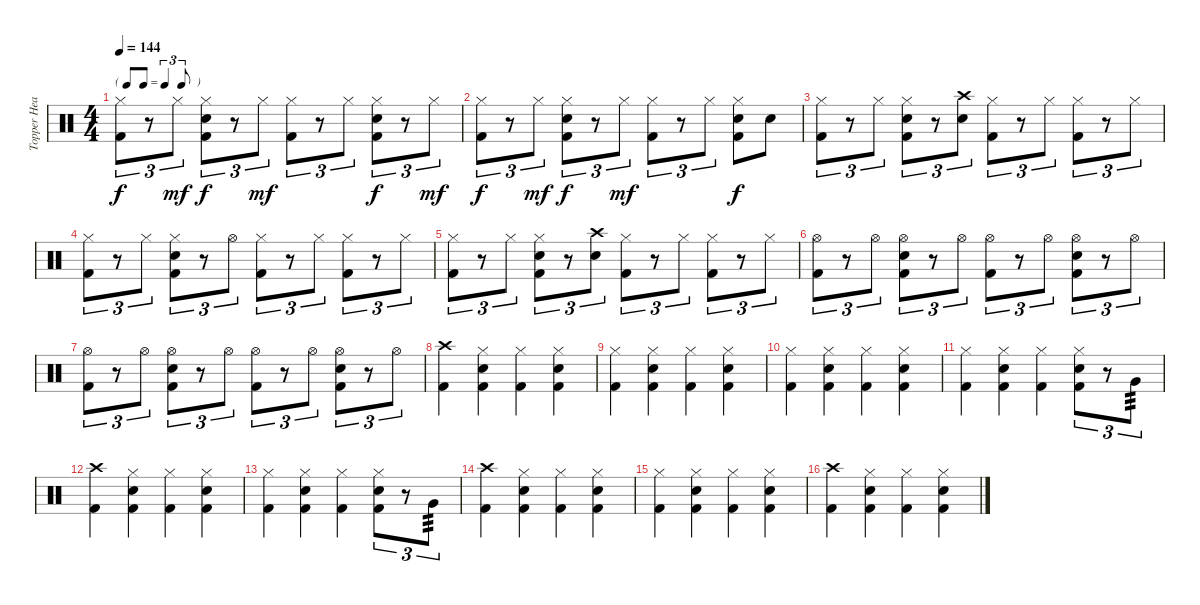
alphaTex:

\track ("Topper Headon" "Topper Hea") {instrument percussion}
\staff {score}
\articulation defaults
\ts (4 4)
\tf triplet8th
\tempo 144
\clef neutral
\ks c
("Hi-Hat (closed)" "Kick (hit) 2").8{tu (3 2) dy f} r.8{tu (3 2)} "Hi-Hat (closed)".8{tu (3 2) dy mf} ("Hi-Hat (closed)" "Snare (hit) 2" "Kick (hit) 2").8{tu (3 2) dy f} r.8{tu (3 2)} "Hi-Hat (closed)".8{tu (3 2) dy mf} ("Hi-Hat (closed)" "Kick (hit) 2").8{tu (3 2)} r.8{tu (3 2)} "Hi-Hat (closed)".8{tu (3 2)} ("Hi-Hat (closed)" "Snare (hit) 2" "Kick (hit) 2").8{tu (3 2) dy f} r.8{tu (3 2)} "Hi-Hat (closed)".8{tu (3 2) dy mf} |
("Hi-Hat (closed)" "Kick (hit) 2").8{tu (3 2) dy f} r.8{tu (3 2)} "Hi-Hat (closed)".8{tu (3 2) dy mf} ("Hi-Hat (closed)" "Snare (hit) 2" "Kick (hit) 2").8{tu (3 2) dy f} r.8{tu (3 2)} "Hi-Hat (closed)".8{tu (3 2) dy mf} ("Hi-Hat (closed)" "Kick (hit) 2").8{tu (3 2)} r.8{tu (3 2)} "Hi-Hat (closed)".8{tu (3 2)} ("Hi-Hat (closed)" "Snare (hit) 2" "Kick (hit) 2").8{dy f} "Snare (hit) 2".8 |
("Hi-Hat (closed)" "Kick (hit) 2").8{tu (3 2)} r.8{tu (3 2)} "Hi-Hat (closed)".8{tu (3 2)} ("Hi-Hat (closed)" "Snare (hit) 2" "Kick (hit) 2").8{tu (3 2)} r.8{tu (3 2)} ("Crash high (hit)" "Snare (hit) 2").8{tu (3 2)} ("Hi-Hat (closed)" "Kick (hit) 2").8{tu (3 2)} r.8{tu (3 2)} "Hi-Hat (closed)".8{tu (3 2)} ("Hi-Hat (closed)" "Kick (hit) 2").8{tu (3 2)} r.8{tu (3 2)} "Hi-Hat (closed)".8{tu (3 2)} |
("Hi-Hat (closed)" "Kick (hit) 2").8{tu (3 2)} r.8{tu (3 2)} "Hi-Hat (closed)".8{tu (3 2)} ("Hi-Hat (closed)" "Snare (hit) 2" "Kick (hit) 2").8{tu (3 2)} r.8{tu (3 2)} "Hi-Hat (open)".8{tu (3 2)} ("Hi-Hat (closed)" "Kick (hit) 2").8{tu (3 2)} r.8{tu (3 2)} "Hi-Hat (closed)".8{tu (3 2)} ("Hi-Hat (closed)" "Kick (hit) 2").8{tu (3 2)} r.8{tu (3 2)} "Hi-Hat (closed)".8{tu (3 2)} |
("Hi-Hat (closed)" "Kick (hit) 2").8{tu (3 2)} r.8{tu (3 2)} "Hi-Hat (closed)".8{tu (3 2)} ("Hi-Hat (closed)" "Snare (hit) 2" "Kick (hit) 2").8{tu (3 2)} r.8{tu (3 2)} ("Crash high (hit)" "Snare (hit) 2").8{tu (3 2)} ("Hi-Hat (closed)" "Kick (hit) 2").8{tu (3 2)} r.8{tu (3 2)} "Hi-Hat (closed)".8{tu (3 2)} ("Hi-Hat (closed)" "Kick (hit) 2").8{tu (3 2)} r.8{tu (3 2)} "Hi-Hat (closed)".8{tu (3 2)} |
("Hi-Hat (open)" "Kick (hit) 2").8{tu (3 2)} r.8{tu (3 2)} "Hi-Hat (open)".8{tu (3 2)} ("Hi-Hat (open)" "Snare (hit) 2" "Kick (hit) 2").8{tu (3 2)} r.8{tu (3 2)} "Hi-Hat (open)".8{tu (3 2)} ("Hi-Hat (open)" "Kick (hit) 2").8{tu (3 2)} r.8{tu (3 2)} "Hi-Hat (open)".8{tu (3 2)} ("Hi-Hat (open)" "Snare (hit) 2" "Kick (hit) 2").8{tu (3 2)} r.8{tu (3 2)} "Hi-Hat (open)".8{tu (3 2)} |
("Hi-Hat (open)" "Kick (hit) 2").8{tu (3 2)} r.8{tu (3 2)} "Hi-Hat (open)".8{tu (3 2)} ("Hi-Hat (open)" "Snare (hit) 2" "Kick (hit) 2").8{tu (3 2)} r.8{tu (3 2)} "Hi-Hat (open)".8{tu (3 2)} ("Hi-Hat (open)" "Kick (hit) 2").8{tu (3 2)} r.8{tu (3 2)} "Hi-Hat (open)".8{tu (3 2)} ("Hi-Hat (open)" "Snare (hit) 2" "Kick (hit) 2").8{tu (3 2)} r.8{tu (3 2)} "Hi-Hat (open)".8{tu (3 2)} |
("Crash high (hit)" "Kick (hit) 2").4 ("Hi-Hat (closed)" "Snare (hit) 2" "Kick (hit) 2").4 ("Hi-Hat (closed)" "Kick (hit) 2").4 ("Hi-Hat (closed)" "Snare (hit) 2" "Kick (hit) 2").4 |
("Hi-Hat (closed)" "Kick (hit) 2").4 ("Hi-Hat (closed)" "Snare (hit) 2" "Kick (hit) 2").4 ("Hi-Hat (closed)" "Kick (hit) 2").4 ("Hi-Hat (closed)" "Snare (hit) 2" "Kick (hit) 2").4 |
("Hi-Hat (closed)" "Kick (hit) 2").4 ("Hi-Hat (closed)" "Snare (hit) 2" "Kick (hit) 2").4 ("Hi-Hat (closed)" "Kick (hit) 2").4 ("Hi-Hat (closed)" "Snare (hit) 2" "Kick (hit) 2").4 |
("Hi-Hat (closed)" "Kick (hit) 2").4 ("Hi-Hat (closed)" "Snare (hit) 2" "Kick (hit) 2").4 ("Hi-Hat (closed)" "Kick (hit) 2").4 ("Hi-Hat (closed)" "Snare (hit) 2" "Kick (hit) 2").8{tu (3 2)} r.8{tu (3 2)} "Very Low Tom (hit)".8{tu (3 2) tp 3} |
("Crash high (hit)" "Kick (hit) 2").4 ("Hi-Hat (closed)" "Snare (hit) 2" "Kick (hit) 2").4 ("Hi-Hat (closed)" "Kick (hit) 2").4 ("Hi-Hat (closed)" "Snare (hit) 2" "Kick (hit) 2").4 |
("Hi-Hat (closed)" "Kick (hit) 2").4 ("Hi-Hat (closed)" "Snare (hit) 2" "Kick (hit) 2").4 ("Hi-Hat (closed)" "Kick (hit) 2").4 ("Hi-Hat (closed)" "Snare (hit) 2" "Kick (hit) 2").8{tu (3 2)} r.8{tu (3 2)} "Very Low Tom (hit)".8{tu (3 2) tp 3} |
("Crash high (hit)" "Kick (hit) 2").4 ("Hi-Hat (closed)" "Snare (hit) 2" "Kick (hit) 2").4 ("Hi-Hat (closed)" "Kick (hit) 2").4 ("Hi-Hat (closed)" "Snare (hit) 2" "Kick (hit) 2").4 |
("Hi-Hat (closed)" "Kick (hit) 2").4 ("Hi-Hat (closed)" "Snare (hit) 2" "Kick (hit) 2").4 ("Hi-Hat (closed)" "Kick (hit) 2").4 ("Hi-Hat (closed)" "Snare (hit) 2" "Kick (hit) 2").4 |
("Crash high (hit)" "Kick (hit) 2").4 ("Hi-Hat (closed)" "Snare (hit) 2" "Kick (hit) 2").4 ("Hi-Hat (closed)" "Kick (hit) 2").4 ("Hi-Hat (closed)" "Snare (hit) 2" "Kick (hit) 2").4
